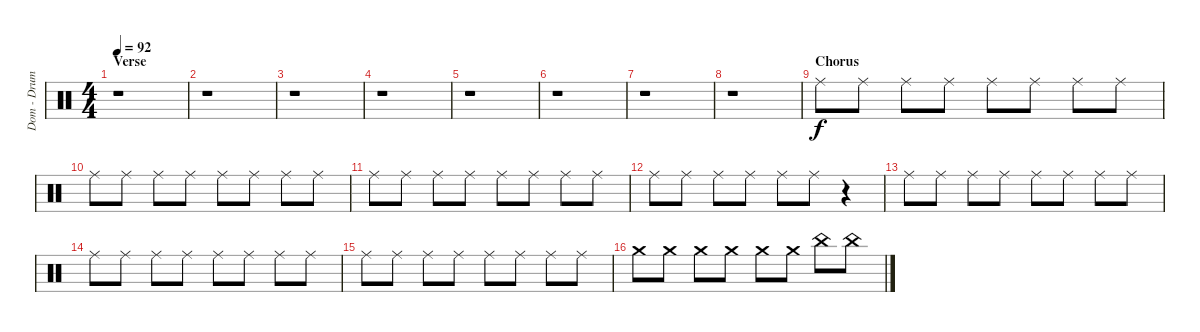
\track ("Dom - Drums 2" "Dom - Drum") {instrument percussion}
\staff {score}
\articulation defaults
\ts (4 4)
\section ("" "Verse")
\tempo 92
\clef neutral
\ks c
r.1{dy f} |
r.1 |
r.1 |
r.1 |
r.1 |
r.1 |
r.1 |
r.1 |
\section ("" "Chorus")
"Ride (middle)".8 "Ride (middle)".8 "Ride (middle)".8 "Ride (middle)".8 "Ride (middle)".8 "Ride (middle)".8 "Ride (middle)".8 "Ride (middle)".8 |
"Ride (middle)".8 "Ride (middle)".8 "Ride (middle)".8 "Ride (middle)".8 "Ride (middle)".8 "Ride (middle)".8 "Ride (middle)".8 "Ride (middle)".8 |
"Ride (middle)".8 "Ride (middle)".8 "Ride (middle)".8 "Ride (middle)".8 "Ride (middle)".8 "Ride (middle)".8 "Ride (middle)".8 "Ride (middle)".8 |
"Ride (middle)".8 "Ride (middle)".8 "Ride (middle)".8 "Ride (middle)".8 "Ride (middle)".8 "Ride (middle)".8 r.4 |
"Ride (middle)".8 "Ride (middle)".8 "Ride (middle)".8 "Ride (middle)".8 "Ride (middle)".8 "Ride (middle)".8 "Ride (middle)".8 "Ride (middle)".8 |
"Ride (middle)".8 "Ride (middle)".8 "Ride (middle)".8 "Ride (middle)".8 "Ride (middle)".8 "Ride (middle)".8 "Ride (middle)".8 "Ride (middle)".8 |
"Ride (middle)".8 "Ride (middle)".8 "Ride (middle)".8 "Ride (middle)".8 "Ride (middle)".8 "Ride (middle)".8 "Ride (middle)".8 "Ride (middle)".8 |
"Crash medium (hit)".8 "Crash medium (hit)".8 "Crash medium (hit)".8 "Crash medium (hit)".8 "Crash medium (hit)".8 "Crash medium (hit)".8 "China (hit)".8 "China (hit)".8
